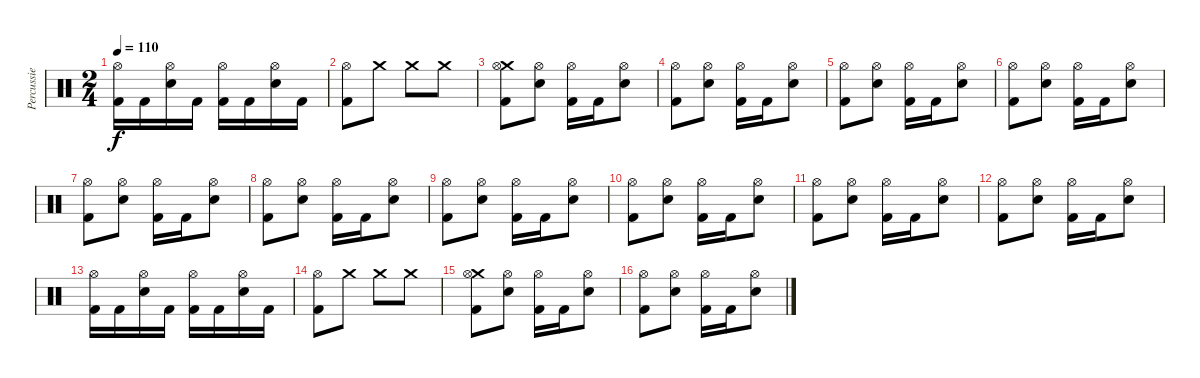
\track ("Percussie" "Percussie") {instrument percussion}
\staff {score}
\articulation defaults
\ts (2 4)
\tempo 110
\clef neutral
\ks c
("Hi-Hat (open)" "Kick (hit) 2").16{dy f} "Kick (hit) 2".16 ("Hi-Hat (open)" "Electric Snare (hit)").16 "Kick (hit) 2".16 ("Hi-Hat (open)" "Kick (hit) 2").16 "Kick (hit) 2".16 ("Hi-Hat (open)" "Electric Snare (hit)").16 "Kick (hit) 2".16 |
("Hi-Hat (open)" "Kick (hit) 2").8 "Crash medium (hit)".8 "Crash medium (hit)".8 "Crash medium (hit)".8 |
("Crash medium (hit)" "Hi-Hat (open)" "Kick (hit) 2").8 ("Hi-Hat (open)" "Electric Snare (hit)").8 ("Hi-Hat (open)" "Kick (hit) 2").16 "Kick (hit) 2".16 ("Hi-Hat (open)" "Electric Snare (hit)").8 |
("Hi-Hat (open)" "Kick (hit) 2").8 ("Hi-Hat (open)" "Electric Snare (hit)").8 ("Hi-Hat (open)" "Kick (hit) 2").16 "Kick (hit) 2".16 ("Hi-Hat (open)" "Electric Snare (hit)").8 |
("Hi-Hat (open)" "Kick (hit) 2").8 ("Hi-Hat (open)" "Electric Snare (hit)").8 ("Hi-Hat (open)" "Kick (hit) 2").16 "Kick (hit) 2".16 ("Hi-Hat (open)" "Electric Snare (hit)").8 |
("Hi-Hat (open)" "Kick (hit) 2").8 ("Hi-Hat (open)" "Electric Snare (hit)").8 ("Hi-Hat (open)" "Kick (hit) 2").16 "Kick (hit) 2".16 ("Hi-Hat (open)" "Electric Snare (hit)").8 |
("Hi-Hat (open)" "Kick (hit) 2").8 ("Hi-Hat (open)" "Electric Snare (hit)").8 ("Hi-Hat (open)" "Kick (hit) 2").16 "Kick (hit) 2".16 ("Hi-Hat (open)" "Electric Snare (hit)").8 |
("Hi-Hat (open)" "Kick (hit) 2").8 ("Hi-Hat (open)" "Electric Snare (hit)").8 ("Hi-Hat (open)" "Kick (hit) 2").16 "Kick (hit) 2".16 ("Hi-Hat (open)" "Electric Snare (hit)").8 |
("Hi-Hat (open)" "Kick (hit) 2").8 ("Hi-Hat (open)" "Electric Snare (hit)").8 ("Hi-Hat (open)" "Kick (hit) 2").16 "Kick (hit) 2".16 ("Hi-Hat (open)" "Electric Snare (hit)").8 |
("Hi-Hat (open)" "Kick (hit) 2").8 ("Hi-Hat (open)" "Electric Snare (hit)").8 ("Hi-Hat (open)" "Kick (hit) 2").16 "Kick (hit) 2".16 ("Hi-Hat (open)" "Electric Snare (hit)").8 |
("Hi-Hat (open)" "Kick (hit) 2").8 ("Hi-Hat (open)" "Electric Snare (hit)").8 ("Hi-Hat (open)" "Kick (hit) 2").16 "Kick (hit) 2".16 ("Hi-Hat (open)" "Electric Snare (hit)").8 |
("Hi-Hat (open)" "Kick (hit) 2").8 ("Hi-Hat (open)" "Electric Snare (hit)").8 ("Hi-Hat (open)" "Kick (hit) 2").16 "Kick (hit) 2".16 ("Hi-Hat (open)" "Electric Snare (hit)").8 |
("Hi-Hat (open)" "Kick (hit) 2").16 "Kick (hit) 2".16 ("Hi-Hat (open)" "Electric Snare (hit)").16 "Kick (hit) 2".16 ("Hi-Hat (open)" "Kick (hit) 2").16 "Kick (hit) 2".16 ("Hi-Hat (open)" "Electric Snare (hit)").16 "Kick (hit) 2".16 |
("Hi-Hat (open)" "Kick (hit) 2").8 "Crash medium (hit)".8 "Crash medium (hit)".8 "Crash medium (hit)".8 |
("Crash medium (hit)" "Hi-Hat (open)" "Kick (hit) 2").8 ("Hi-Hat (open)" "Electric Snare (hit)").8 ("Hi-Hat (open)" "Kick (hit) 2").16 "Kick (hit) 2".16 ("Hi-Hat (open)" "Electric Snare (hit)").8 |
("Hi-Hat (open)" "Kick (hit) 2").8 ("Hi-Hat (open)" "Electric Snare (hit)").8 ("Hi-Hat (open)" "Kick (hit) 2").16 "Kick (hit) 2".16 ("Hi-Hat (open)" "Electric Snare (hit)").8
